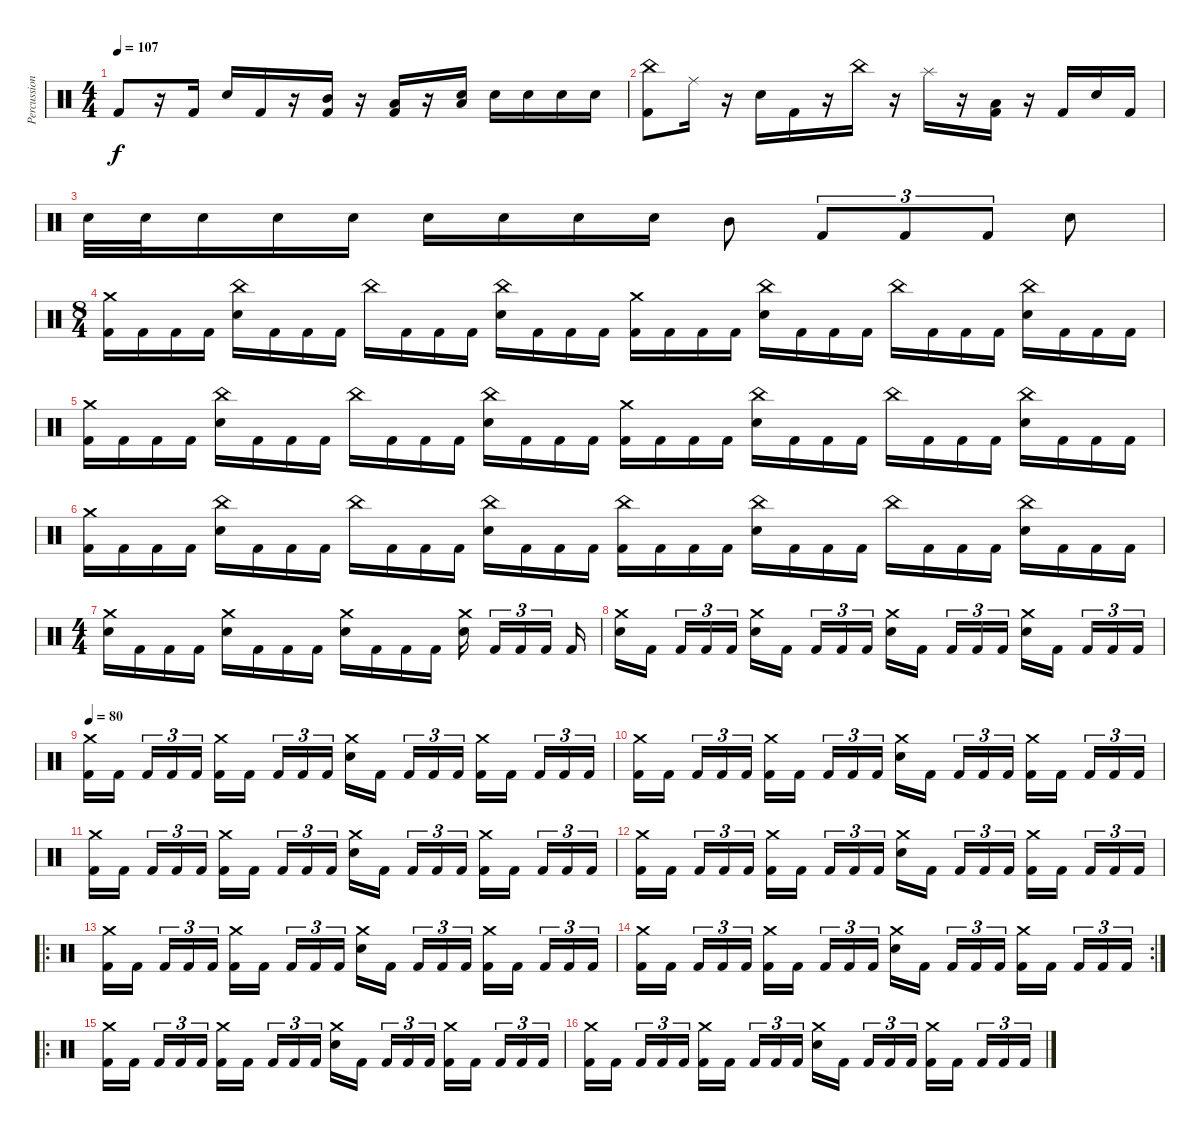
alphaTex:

\track ("Percussion" "Percussion") {instrument percussion}
\staff {score}
\articulation defaults
\ts (4 4)
\tempo 107
\clef neutral
\ks c "Kick (hit) 2".8{dy f}
r.16 "Kick (hit) 2".16 "Electric Snare (hit)".16 "Kick (hit) 2".16 r.16 ("Kick (hit) 2" "Mid Tom (hit)").16 r.16 ("Kick (hit) 2" "Low Tom (hit)").16 r.16 ("Electric Snare (hit)" "Low Floor Tom (hit)").16 "Electric Snare (hit)".16 "Electric Snare (hit)".16 "Electric Snare (hit)".16 "Electric Snare (hit)".16 |
("Kick (hit) 2" "China (hit)").8 "Ride (middle)".16 r.16 "Electric Snare (hit)".16 "Kick (hit) 2".16 r.16 "China (hit)".16 r.16 "Splash (hit)".16 r.16 ("Kick (hit) 2" "Low Tom (hit)").16 r.16 "Kick (hit) 2".16 "Electric Snare (hit)".16 "Kick (hit) 2".16 |
"Electric Snare (hit)".32 "Electric Snare (hit)".32 "Electric Snare (hit)".16 "Electric Snare (hit)".16 "Electric Snare (hit)".16 "Electric Snare (hit)".16 "Electric Snare (hit)".16 "Electric Snare (hit)".16 "Electric Snare (hit)".16 "Mid Tom (hit)".8 "Kick (hit) 2".8{tu (3 2)} "Kick (hit) 2".8{tu (3 2)} "Kick (hit) 2".8{tu (3 2)} "Electric Snare (hit)".8 |
\ts (8 4)
("Crash medium (hit)" "Kick (hit) 2").16 "Kick (hit) 2".16 "Kick (hit) 2".16 "Kick (hit) 2".16 ("China (hit)" "Electric Snare (hit)").16 "Kick (hit) 2".16 "Kick (hit) 2".16 "Kick (hit) 2".16 "China (hit)".16 "Kick (hit) 2".16 "Kick (hit) 2".16 "Kick (hit) 2".16 ("China (hit)" "Electric Snare (hit)").16 "Kick (hit) 2".16 "Kick (hit) 2".16 "Kick (hit) 2".16 ("Crash medium (hit)" "Kick (hit) 2").16 "Kick (hit) 2".16 "Kick (hit) 2".16 "Kick (hit) 2".16 ("China (hit)" "Electric Snare (hit)").16 "Kick (hit) 2".16 "Kick (hit) 2".16 "Kick (hit) 2".16 "China (hit)".16 "Kick (hit) 2".16 "Kick (hit) 2".16 "Kick (hit) 2".16 ("China (hit)" "Electric Snare (hit)").16 "Kick (hit) 2".16 "Kick (hit) 2".16 "Kick (hit) 2".16 |
("Crash medium (hit)" "Kick (hit) 2").16 "Kick (hit) 2".16 "Kick (hit) 2".16 "Kick (hit) 2".16 ("China (hit)" "Electric Snare (hit)").16 "Kick (hit) 2".16 "Kick (hit) 2".16 "Kick (hit) 2".16 "China (hit)".16 "Kick (hit) 2".16 "Kick (hit) 2".16 "Kick (hit) 2".16 ("China (hit)" "Electric Snare (hit)").16 "Kick (hit) 2".16 "Kick (hit) 2".16 "Kick (hit) 2".16 ("Crash medium (hit)" "Kick (hit) 2").16 "Kick (hit) 2".16 "Kick (hit) 2".16 "Kick (hit) 2".16 ("China (hit)" "Electric Snare (hit)").16 "Kick (hit) 2".16 "Kick (hit) 2".16 "Kick (hit) 2".16 "China (hit)".16 "Kick (hit) 2".16 "Kick (hit) 2".16 "Kick (hit) 2".16 ("China (hit)" "Electric Snare (hit)").16 "Kick (hit) 2".16 "Kick (hit) 2".16 "Kick (hit) 2".16 |
("Crash medium (hit)" "Kick (hit) 2").16 "Kick (hit) 2".16 "Kick (hit) 2".16 "Kick (hit) 2".16 ("China (hit)" "Electric Snare (hit)").16 "Kick (hit) 2".16 "Kick (hit) 2".16 "Kick (hit) 2".16 "China (hit)".16 "Kick (hit) 2".16 "Kick (hit) 2".16 "Kick (hit) 2".16 ("China (hit)" "Electric Snare (hit)").16 "Kick (hit) 2".16 "Kick (hit) 2".16 "Kick (hit) 2".16 ("China (hit)" "Kick (hit) 2").16 "Kick (hit) 2".16 "Kick (hit) 2".16 "Kick (hit) 2".16 ("China (hit)" "Electric Snare (hit)").16 "Kick (hit) 2".16 "Kick (hit) 2".16 "Kick (hit) 2".16 "China (hit)".16 "Kick (hit) 2".16 "Kick (hit) 2".16 "Kick (hit) 2".16 ("China (hit)" "Electric Snare (hit)").16 "Kick (hit) 2".16 "Kick (hit) 2".16 "Kick (hit) 2".16 |
\ts (4 4)
("Crash medium (hit)" "Electric Snare (hit)").16 "Kick (hit) 2".16 "Kick (hit) 2".16 "Kick (hit) 2".16 ("Crash medium (hit)" "Electric Snare (hit)").16 "Kick (hit) 2".16 "Kick (hit) 2".16 "Kick (hit) 2".16 ("Crash medium (hit)" "Electric Snare (hit)").16 "Kick (hit) 2".16 "Kick (hit) 2".16 "Kick (hit) 2".16 ("Crash medium (hit)" "Electric Snare (hit)").16{beam splitsecondary} "Kick (hit) 2".16{tu (3 2)} "Kick (hit) 2".16{tu (3 2)} "Kick (hit) 2".16{tu (3 2) beam splitsecondary} "Kick (hit) 2".16 |
("Crash medium (hit)" "Electric Snare (hit)").16 "Kick (hit) 2".16{beam splitsecondary} "Kick (hit) 2".16{tu (3 2)} "Kick (hit) 2".16{tu (3 2)} "Kick (hit) 2".16{tu (3 2)} ("Crash medium (hit)" "Electric Snare (hit)").16 "Kick (hit) 2".16{beam splitsecondary} "Kick (hit) 2".16{tu (3 2)} "Kick (hit) 2".16{tu (3 2)} "Kick (hit) 2".16{tu (3 2)} ("Crash medium (hit)" "Electric Snare (hit)").16 "Kick (hit) 2".16{beam splitsecondary} "Kick (hit) 2".16{tu (3 2)} "Kick (hit) 2".16{tu (3 2)} "Kick (hit) 2".16{tu (3 2)} ("Crash medium (hit)" "Electric Snare (hit)").16 "Kick (hit) 2".16{beam splitsecondary} "Kick (hit) 2".16{tu (3 2)} "Kick (hit) 2".16{tu (3 2)} "Kick (hit) 2".16{tu (3 2)} |
\tempo 80
("Crash medium (hit)" "Kick (hit) 2").16 "Kick (hit) 2".16{beam splitsecondary} "Kick (hit) 2".16{tu (3 2)} "Kick (hit) 2".16{tu (3 2)} "Kick (hit) 2".16{tu (3 2)} ("Crash medium (hit)" "Kick (hit) 2").16 "Kick (hit) 2".16{beam splitsecondary} "Kick (hit) 2".16{tu (3 2)} "Kick (hit) 2".16{tu (3 2)} "Kick (hit) 2".16{tu (3 2)} ("Crash medium (hit)" "Electric Snare (hit)").16 "Kick (hit) 2".16{beam splitsecondary} "Kick (hit) 2".16{tu (3 2)} "Kick (hit) 2".16{tu (3 2)} "Kick (hit) 2".16{tu (3 2)} ("Crash medium (hit)" "Kick (hit) 2").16 "Kick (hit) 2".16{beam splitsecondary} "Kick (hit) 2".16{tu (3 2)} "Kick (hit) 2".16{tu (3 2)} "Kick (hit) 2".16{tu (3 2)} |
("Crash medium (hit)" "Kick (hit) 2").16 "Kick (hit) 2".16{beam splitsecondary} "Kick (hit) 2".16{tu (3 2)} "Kick (hit) 2".16{tu (3 2)} "Kick (hit) 2".16{tu (3 2)} ("Crash medium (hit)" "Kick (hit) 2").16 "Kick (hit) 2".16{beam splitsecondary} "Kick (hit) 2".16{tu (3 2)} "Kick (hit) 2".16{tu (3 2)} "Kick (hit) 2".16{tu (3 2)} ("Crash medium (hit)" "Electric Snare (hit)").16 "Kick (hit) 2".16{beam splitsecondary} "Kick (hit) 2".16{tu (3 2)} "Kick (hit) 2".16{tu (3 2)} "Kick (hit) 2".16{tu (3 2)} ("Crash medium (hit)" "Kick (hit) 2").16 "Kick (hit) 2".16{beam splitsecondary} "Kick (hit) 2".16{tu (3 2)} "Kick (hit) 2".16{tu (3 2)} "Kick (hit) 2".16{tu (3 2)} |
("Crash medium (hit)" "Kick (hit) 2").16 "Kick (hit) 2".16{beam splitsecondary} "Kick (hit) 2".16{tu (3 2)} "Kick (hit) 2".16{tu (3 2)} "Kick (hit) 2".16{tu (3 2)} ("Crash medium (hit)" "Kick (hit) 2").16 "Kick (hit) 2".16{beam splitsecondary} "Kick (hit) 2".16{tu (3 2)} "Kick (hit) 2".16{tu (3 2)} "Kick (hit) 2".16{tu (3 2)} ("Crash medium (hit)" "Electric Snare (hit)").16 "Kick (hit) 2".16{beam splitsecondary} "Kick (hit) 2".16{tu (3 2)} "Kick (hit) 2".16{tu (3 2)} "Kick (hit) 2".16{tu (3 2)} ("Crash medium (hit)" "Kick (hit) 2").16 "Kick (hit) 2".16{beam splitsecondary} "Kick (hit) 2".16{tu (3 2)} "Kick (hit) 2".16{tu (3 2)} "Kick (hit) 2".16{tu (3 2)} |
("Crash medium (hit)" "Kick (hit) 2").16 "Kick (hit) 2".16{beam splitsecondary} "Kick (hit) 2".16{tu (3 2)} "Kick (hit) 2".16{tu (3 2)} "Kick (hit) 2".16{tu (3 2)} ("Crash medium (hit)" "Kick (hit) 2").16 "Kick (hit) 2".16{beam splitsecondary} "Kick (hit) 2".16{tu (3 2)} "Kick (hit) 2".16{tu (3 2)} "Kick (hit) 2".16{tu (3 2)} ("Crash medium (hit)" "Electric Snare (hit)").16 "Kick (hit) 2".16{beam splitsecondary} "Kick (hit) 2".16{tu (3 2)} "Kick (hit) 2".16{tu (3 2)} "Kick (hit) 2".16{tu (3 2)} ("Crash medium (hit)" "Kick (hit) 2").16 "Kick (hit) 2".16{beam splitsecondary} "Kick (hit) 2".16{tu (3 2)} "Kick (hit) 2".16{tu (3 2)} "Kick (hit) 2".16{tu (3 2)} |
\ro
("Crash medium (hit)" "Kick (hit) 2").16 "Kick (hit) 2".16{beam splitsecondary} "Kick (hit) 2".16{tu (3 2)} "Kick (hit) 2".16{tu (3 2)} "Kick (hit) 2".16{tu (3 2)} ("Crash medium (hit)" "Kick (hit) 2").16 "Kick (hit) 2".16{beam splitsecondary} "Kick (hit) 2".16{tu (3 2)} "Kick (hit) 2".16{tu (3 2)} "Kick (hit) 2".16{tu (3 2)} ("Crash medium (hit)" "Electric Snare (hit)").16 "Kick (hit) 2".16{beam splitsecondary} "Kick (hit) 2".16{tu (3 2)} "Kick (hit) 2".16{tu (3 2)} "Kick (hit) 2".16{tu (3 2)} ("Crash medium (hit)" "Kick (hit) 2").16 "Kick (hit) 2".16{beam splitsecondary} "Kick (hit) 2".16{tu (3 2)} "Kick (hit) 2".16{tu (3 2)} "Kick (hit) 2".16{tu (3 2)} |
\rc 2
("Crash medium (hit)" "Kick (hit) 2").16 "Kick (hit) 2".16{beam splitsecondary} "Kick (hit) 2".16{tu (3 2)} "Kick (hit) 2".16{tu (3 2)} "Kick (hit) 2".16{tu (3 2)} ("Crash medium (hit)" "Kick (hit) 2").16 "Kick (hit) 2".16{beam splitsecondary} "Kick (hit) 2".16{tu (3 2)} "Kick (hit) 2".16{tu (3 2)} "Kick (hit) 2".16{tu (3 2)} ("Crash medium (hit)" "Electric Snare (hit)").16 "Kick (hit) 2".16{beam splitsecondary} "Kick (hit) 2".16{tu (3 2)} "Kick (hit) 2".16{tu (3 2)} "Kick (hit) 2".16{tu (3 2)} ("Crash medium (hit)" "Kick (hit) 2").16 "Kick (hit) 2".16{beam splitsecondary} "Kick (hit) 2".16{tu (3 2)} "Kick (hit) 2".16{tu (3 2)} "Kick (hit) 2".16{tu (3 2)} |
\ro
("Crash medium (hit)" "Kick (hit) 2").16 "Kick (hit) 2".16{beam splitsecondary} "Kick (hit) 2".16{tu (3 2)} "Kick (hit) 2".16{tu (3 2)} "Kick (hit) 2".16{tu (3 2)} ("Crash medium (hit)" "Kick (hit) 2").16 "Kick (hit) 2".16{beam splitsecondary} "Kick (hit) 2".16{tu (3 2)} "Kick (hit) 2".16{tu (3 2)} "Kick (hit) 2".16{tu (3 2)} ("Crash medium (hit)" "Electric Snare (hit)").16 "Kick (hit) 2".16{beam splitsecondary} "Kick (hit) 2".16{tu (3 2)} "Kick (hit) 2".16{tu (3 2)} "Kick (hit) 2".16{tu (3 2)} ("Crash medium (hit)" "Kick (hit) 2").16 "Kick (hit) 2".16{beam splitsecondary} "Kick (hit) 2".16{tu (3 2)} "Kick (hit) 2".16{tu (3 2)} "Kick (hit) 2".16{tu (3 2)} |
("Crash medium (hit)" "Kick (hit) 2").16 "Kick (hit) 2".16{beam splitsecondary} "Kick (hit) 2".16{tu (3 2)} "Kick (hit) 2".16{tu (3 2)} "Kick (hit) 2".16{tu (3 2)} ("Crash medium (hit)" "Kick (hit) 2").16 "Kick (hit) 2".16{beam splitsecondary} "Kick (hit) 2".16{tu (3 2)} "Kick (hit) 2".16{tu (3 2)} "Kick (hit) 2".16{tu (3 2)} ("Crash medium (hit)" "Electric Snare (hit)").16 "Kick (hit) 2".16{beam splitsecondary} "Kick (hit) 2".16{tu (3 2)} "Kick (hit) 2".16{tu (3 2)} "Kick (hit) 2".16{tu (3 2)} ("Crash medium (hit)" "Kick (hit) 2").16 "Kick (hit) 2".16{beam splitsecondary} "Kick (hit) 2".16{tu (3 2)} "Kick (hit) 2".16{tu (3 2)} "Kick (hit) 2".16{tu (3 2)}
